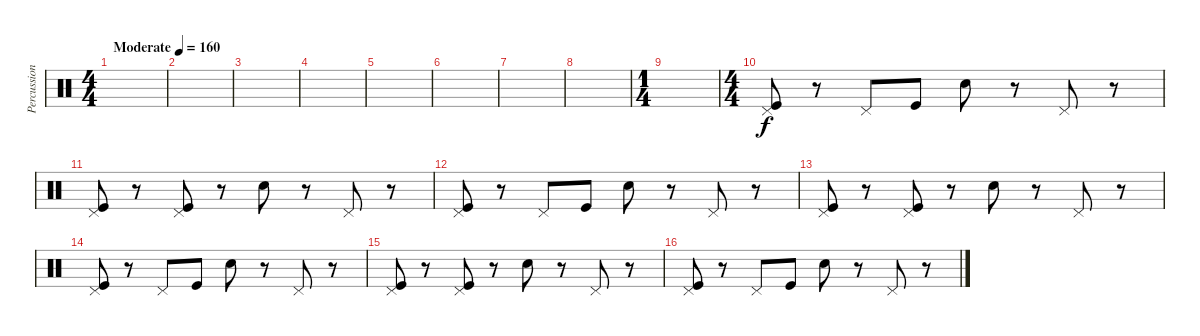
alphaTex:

\track ("Percussion" "Percussion") {instrument percussion}
\staff {score}
\articulation defaults
\ts (4 4)
\tempo (160 "Moderate")
\clef neutral
\ks c
|
|
|
|
|
|
|
|
\ts (1 4)
|
\ts (4 4)
("Pedal Hi-Hat (hit)" "Kick (hit)").8 r.8 "Pedal Hi-Hat (hit)".8 "Kick (hit)".8 "Electric Snare (hit)".8 r.8 "Pedal Hi-Hat (hit)".8 r.8 |
("Pedal Hi-Hat (hit)" "Kick (hit)").8 r.8 ("Pedal Hi-Hat (hit)" "Kick (hit)").8 r.8 "Electric Snare (hit)".8 r.8 "Pedal Hi-Hat (hit)".8 r.8 |
("Pedal Hi-Hat (hit)" "Kick (hit)").8 r.8 "Pedal Hi-Hat (hit)".8 "Kick (hit)".8 "Electric Snare (hit)".8 r.8 "Pedal Hi-Hat (hit)".8 r.8 |
("Pedal Hi-Hat (hit)" "Kick (hit)").8 r.8 ("Pedal Hi-Hat (hit)" "Kick (hit)").8 r.8 "Electric Snare (hit)".8 r.8 "Pedal Hi-Hat (hit)".8 r.8 |
("Pedal Hi-Hat (hit)" "Kick (hit)").8 r.8 "Pedal Hi-Hat (hit)".8 "Kick (hit)".8 "Electric Snare (hit)".8 r.8 "Pedal Hi-Hat (hit)".8 r.8 |
("Pedal Hi-Hat (hit)" "Kick (hit)").8 r.8 ("Pedal Hi-Hat (hit)" "Kick (hit)").8 r.8 "Electric Snare (hit)".8 r.8 "Pedal Hi-Hat (hit)".8 r.8 |
("Pedal Hi-Hat (hit)" "Kick (hit)").8 r.8 "Pedal Hi-Hat (hit)".8 "Kick (hit)".8 "Electric Snare (hit)".8 r.8 "Pedal Hi-Hat (hit)".8 r.8
